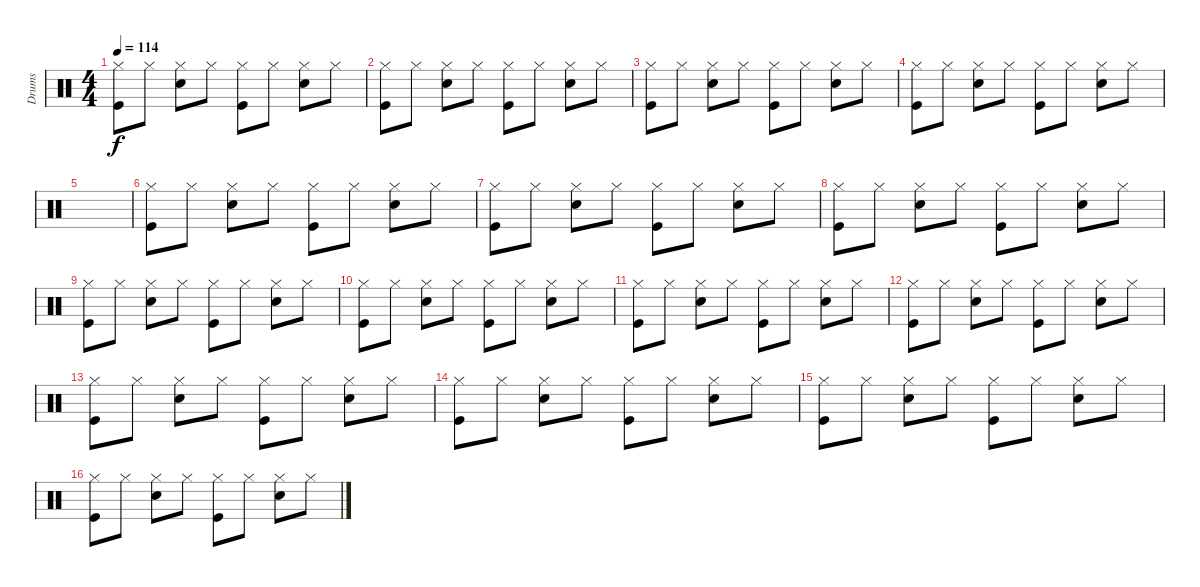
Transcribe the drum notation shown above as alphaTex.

\track ("Drums" "Drums") {instrument percussion}
\staff {score}
\articulation defaults
\ts (4 4)
\tempo 114
\clef neutral
\ks c
("Hi-Hat (closed)" "Kick (hit)").8{dy f} "Hi-Hat (closed)".8 ("Hi-Hat (closed)" "Snare (hit) 2").8 "Hi-Hat (closed)".8 ("Hi-Hat (closed)" "Kick (hit)").8 "Hi-Hat (closed)".8 ("Hi-Hat (closed)" "Snare (hit) 2").8 "Hi-Hat (closed)".8 |
("Hi-Hat (closed)" "Kick (hit)").8 "Hi-Hat (closed)".8 ("Hi-Hat (closed)" "Snare (hit) 2").8 "Hi-Hat (closed)".8 ("Hi-Hat (closed)" "Kick (hit)").8 "Hi-Hat (closed)".8 ("Hi-Hat (closed)" "Snare (hit) 2").8 "Hi-Hat (closed)".8 |
("Hi-Hat (closed)" "Kick (hit)").8 "Hi-Hat (closed)".8 ("Hi-Hat (closed)" "Snare (hit) 2").8 "Hi-Hat (closed)".8 ("Hi-Hat (closed)" "Kick (hit)").8 "Hi-Hat (closed)".8 ("Hi-Hat (closed)" "Snare (hit) 2").8 "Hi-Hat (closed)".8 |
("Hi-Hat (closed)" "Kick (hit)").8 "Hi-Hat (closed)".8 ("Hi-Hat (closed)" "Snare (hit) 2").8 "Hi-Hat (closed)".8 ("Hi-Hat (closed)" "Kick (hit)").8 "Hi-Hat (closed)".8 ("Hi-Hat (closed)" "Snare (hit) 2").8 "Hi-Hat (closed)".8 |
|
("Hi-Hat (closed)" "Kick (hit)").8 "Hi-Hat (closed)".8 ("Hi-Hat (closed)" "Snare (hit) 2").8 "Hi-Hat (closed)".8 ("Hi-Hat (closed)" "Kick (hit)").8 "Hi-Hat (closed)".8 ("Hi-Hat (closed)" "Snare (hit) 2").8 "Hi-Hat (closed)".8 |
("Hi-Hat (closed)" "Kick (hit)").8 "Hi-Hat (closed)".8 ("Hi-Hat (closed)" "Snare (hit) 2").8 "Hi-Hat (closed)".8 ("Hi-Hat (closed)" "Kick (hit)").8 "Hi-Hat (closed)".8 ("Hi-Hat (closed)" "Snare (hit) 2").8 "Hi-Hat (closed)".8 |
("Hi-Hat (closed)" "Kick (hit)").8 "Hi-Hat (closed)".8 ("Hi-Hat (closed)" "Snare (hit) 2").8 "Hi-Hat (closed)".8 ("Hi-Hat (closed)" "Kick (hit)").8 "Hi-Hat (closed)".8 ("Hi-Hat (closed)" "Snare (hit) 2").8 "Hi-Hat (closed)".8 |
("Hi-Hat (closed)" "Kick (hit)").8 "Hi-Hat (closed)".8 ("Hi-Hat (closed)" "Snare (hit) 2").8 "Hi-Hat (closed)".8 ("Hi-Hat (closed)" "Kick (hit)").8 "Hi-Hat (closed)".8 ("Hi-Hat (closed)" "Snare (hit) 2").8 "Hi-Hat (closed)".8 |
("Hi-Hat (closed)" "Kick (hit)").8 "Hi-Hat (closed)".8 ("Hi-Hat (closed)" "Snare (hit) 2").8 "Hi-Hat (closed)".8 ("Hi-Hat (closed)" "Kick (hit)").8 "Hi-Hat (closed)".8 ("Hi-Hat (closed)" "Snare (hit) 2").8 "Hi-Hat (closed)".8 |
("Hi-Hat (closed)" "Kick (hit)").8 "Hi-Hat (closed)".8 ("Hi-Hat (closed)" "Snare (hit) 2").8 "Hi-Hat (closed)".8 ("Hi-Hat (closed)" "Kick (hit)").8 "Hi-Hat (closed)".8 ("Hi-Hat (closed)" "Snare (hit) 2").8 "Hi-Hat (closed)".8 |
("Hi-Hat (closed)" "Kick (hit)").8 "Hi-Hat (closed)".8 ("Hi-Hat (closed)" "Snare (hit) 2").8 "Hi-Hat (closed)".8 ("Hi-Hat (closed)" "Kick (hit)").8 "Hi-Hat (closed)".8 ("Hi-Hat (closed)" "Snare (hit) 2").8 "Hi-Hat (closed)".8 |
("Hi-Hat (closed)" "Kick (hit)").8 "Hi-Hat (closed)".8 ("Hi-Hat (closed)" "Snare (hit) 2").8 "Hi-Hat (closed)".8 ("Hi-Hat (closed)" "Kick (hit)").8 "Hi-Hat (closed)".8 ("Hi-Hat (closed)" "Snare (hit) 2").8 "Hi-Hat (closed)".8 |
("Hi-Hat (closed)" "Kick (hit)").8 "Hi-Hat (closed)".8 ("Hi-Hat (closed)" "Snare (hit) 2").8 "Hi-Hat (closed)".8 ("Hi-Hat (closed)" "Kick (hit)").8 "Hi-Hat (closed)".8 ("Hi-Hat (closed)" "Snare (hit) 2").8 "Hi-Hat (closed)".8 |
("Hi-Hat (closed)" "Kick (hit)").8 "Hi-Hat (closed)".8 ("Hi-Hat (closed)" "Snare (hit) 2").8 "Hi-Hat (closed)".8 ("Hi-Hat (closed)" "Kick (hit)").8 "Hi-Hat (closed)".8 ("Hi-Hat (closed)" "Snare (hit) 2").8 "Hi-Hat (closed)".8 |
("Hi-Hat (closed)" "Kick (hit)").8 "Hi-Hat (closed)".8 ("Hi-Hat (closed)" "Snare (hit) 2").8 "Hi-Hat (closed)".8 ("Hi-Hat (closed)" "Kick (hit)").8 "Hi-Hat (closed)".8 ("Hi-Hat (closed)" "Snare (hit) 2").8 "Hi-Hat (closed)".8
